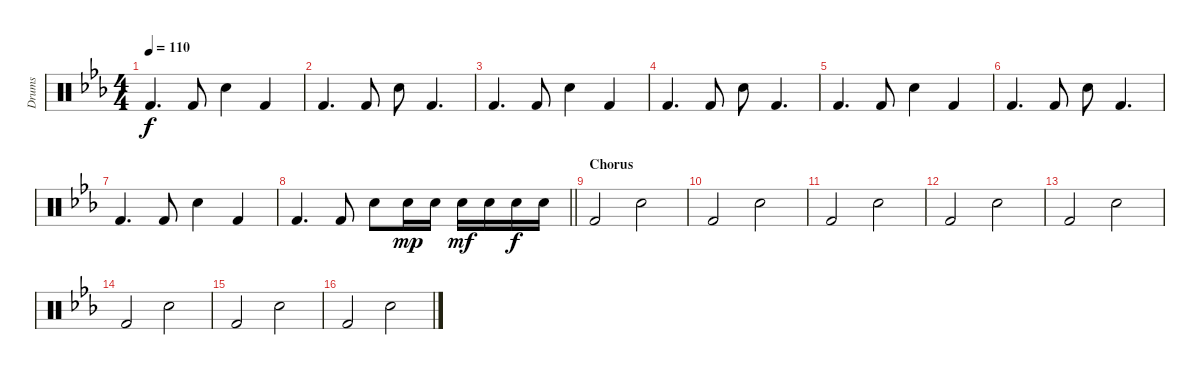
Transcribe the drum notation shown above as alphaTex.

\track ("Drums" "Drums") {instrument percussion}
\staff {score}
\articulation defaults
\ts (4 4)
\tempo 110
\clef neutral
\ks cminor "Kick (hit) 2".4{d dy f} "Kick (hit) 2".8 "Snare (hit) 2".4 "Kick (hit) 2".4
|
"Kick (hit) 2".4{d} "Kick (hit) 2".8 "Snare (hit) 2".8 "Kick (hit) 2".4{d} |
"Kick (hit) 2".4{d} "Kick (hit) 2".8 "Snare (hit) 2".4 "Kick (hit) 2".4 |
"Kick (hit) 2".4{d} "Kick (hit) 2".8 "Snare (hit) 2".8 "Kick (hit) 2".4{d} |
"Kick (hit) 2".4{d} "Kick (hit) 2".8 "Snare (hit) 2".4 "Kick (hit) 2".4 |
"Kick (hit) 2".4{d} "Kick (hit) 2".8 "Snare (hit) 2".8 "Kick (hit) 2".4{d} |
"Kick (hit) 2".4{d} "Kick (hit) 2".8 "Snare (hit) 2".4 "Kick (hit) 2".4 |
\barLineRight lightlight "Kick (hit) 2".4{d} "Kick (hit) 2".8 "Snare (hit) 2".8 "Electric Snare (hit)".16{dy mp} "Electric Snare (hit)".16 "Electric Snare (hit)".16{dy mf} "Electric Snare (hit)".16 "Electric Snare (hit)".16{dy f} "Electric Snare (hit)".16
|
\section ("" "Chorus")
"Kick (hit) 2".2 "Snare (hit) 2".2 |
"Kick (hit) 2".2 "Snare (hit) 2".2 |
"Kick (hit) 2".2 "Snare (hit) 2".2 |
"Kick (hit) 2".2 "Snare (hit) 2".2 |
"Kick (hit) 2".2 "Snare (hit) 2".2 |
"Kick (hit) 2".2 "Snare (hit) 2".2 |
"Kick (hit) 2".2 "Snare (hit) 2".2 |
"Kick (hit) 2".2 "Snare (hit) 2".2
